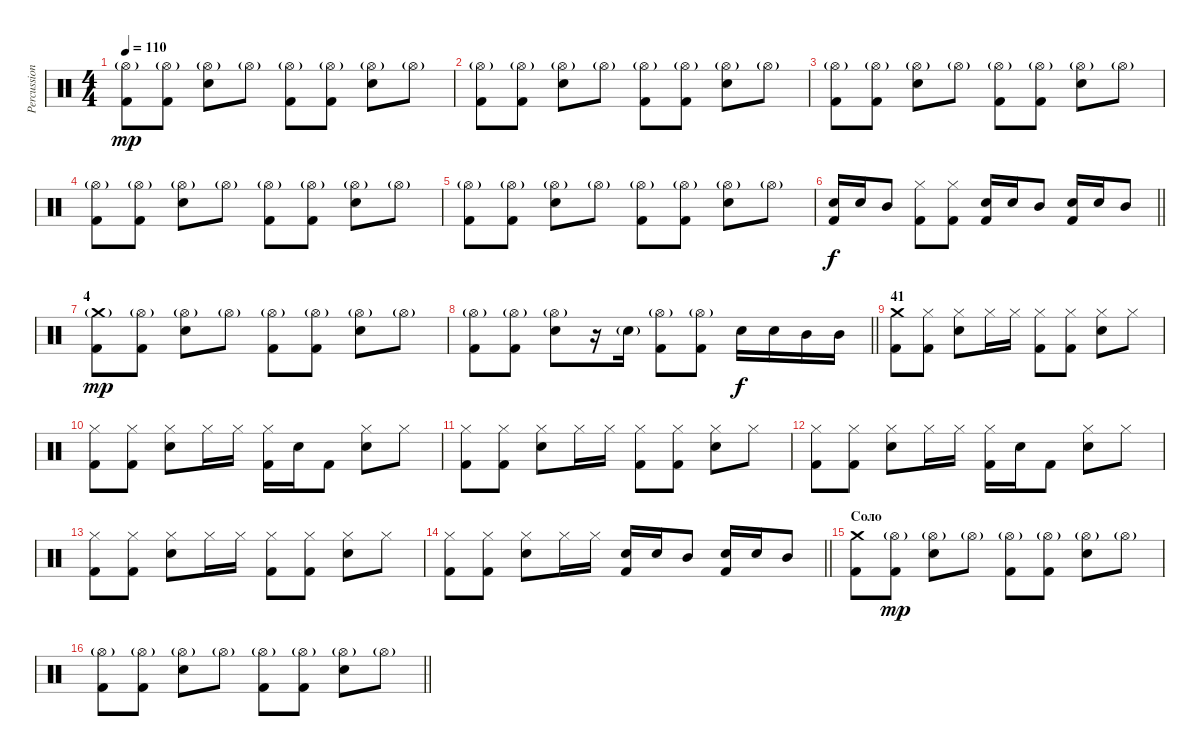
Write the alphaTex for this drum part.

\track ("Percussion" "Percussion") {instrument percussion}
\staff {score}
\articulation defaults
\ts (4 4)
\tempo 110
\clef neutral
\ks c
("Kick (hit) 2" "Hi-Hat (open)"{g}).8{dy mp} ("Kick (hit) 2" "Hi-Hat (open)"{g}).8 ("Electric Snare (hit)" "Hi-Hat (open)"{g}).8 "Hi-Hat (open)"{g}.8 ("Kick (hit) 2" "Hi-Hat (open)"{g}).8 ("Kick (hit) 2" "Hi-Hat (open)"{g}).8 ("Electric Snare (hit)" "Hi-Hat (open)"{g}).8 "Hi-Hat (open)"{g}.8 |
("Kick (hit) 2" "Hi-Hat (open)"{g}).8 ("Kick (hit) 2" "Hi-Hat (open)"{g}).8 ("Electric Snare (hit)" "Hi-Hat (open)"{g}).8 "Hi-Hat (open)"{g}.8 ("Kick (hit) 2" "Hi-Hat (open)"{g}).8 ("Kick (hit) 2" "Hi-Hat (open)"{g}).8 ("Electric Snare (hit)" "Hi-Hat (open)"{g}).8 "Hi-Hat (open)"{g}.8 |
("Kick (hit) 2" "Hi-Hat (open)"{g}).8 ("Kick (hit) 2" "Hi-Hat (open)"{g}).8 ("Electric Snare (hit)" "Hi-Hat (open)"{g}).8 "Hi-Hat (open)"{g}.8 ("Kick (hit) 2" "Hi-Hat (open)"{g}).8 ("Kick (hit) 2" "Hi-Hat (open)"{g}).8 ("Electric Snare (hit)" "Hi-Hat (open)"{g}).8 "Hi-Hat (open)"{g}.8 |
("Kick (hit) 2" "Hi-Hat (open)"{g}).8 ("Kick (hit) 2" "Hi-Hat (open)"{g}).8 ("Electric Snare (hit)" "Hi-Hat (open)"{g}).8 "Hi-Hat (open)"{g}.8 ("Kick (hit) 2" "Hi-Hat (open)"{g}).8 ("Kick (hit) 2" "Hi-Hat (open)"{g}).8 ("Electric Snare (hit)" "Hi-Hat (open)"{g}).8 "Hi-Hat (open)"{g}.8 |
("Kick (hit) 2" "Hi-Hat (open)"{g}).8 ("Kick (hit) 2" "Hi-Hat (open)"{g}).8 ("Electric Snare (hit)" "Hi-Hat (open)"{g}).8 "Hi-Hat (open)"{g}.8 ("Kick (hit) 2" "Hi-Hat (open)"{g}).8 ("Kick (hit) 2" "Hi-Hat (open)"{g}).8 ("Electric Snare (hit)" "Hi-Hat (open)"{g}).8 "Hi-Hat (open)"{g}.8 |
\barLineRight lightlight
("Kick (hit) 2" "Electric Snare (hit)").16{dy f} "Electric Snare (hit)".16 "Mid Tom (hit)".8 ("Kick (hit) 2" "Hi-Hat (closed)").8 ("Kick (hit) 2" "Hi-Hat (closed)").8 ("Kick (hit) 2" "Electric Snare (hit)").16 "Electric Snare (hit)".16 "Mid Tom (hit)".8 ("Kick (hit) 2" "Electric Snare (hit)").16 "Electric Snare (hit)".16 "Mid Tom (hit)".8 |
\section ("" "4")
("Kick (hit) 2" "Crash medium (hit)"{g}).8{dy mp} ("Kick (hit) 2" "Hi-Hat (open)"{g}).8 ("Electric Snare (hit)" "Hi-Hat (open)"{g}).8 "Hi-Hat (open)"{g}.8 ("Kick (hit) 2" "Hi-Hat (open)"{g}).8 ("Kick (hit) 2" "Hi-Hat (open)"{g}).8 ("Electric Snare (hit)" "Hi-Hat (open)"{g}).8 "Hi-Hat (open)"{g}.8 |
\barLineRight lightlight
("Kick (hit) 2" "Hi-Hat (open)"{g}).8 ("Kick (hit) 2" "Hi-Hat (open)"{g}).8 ("Electric Snare (hit)" "Hi-Hat (open)"{g}).8 r.16 "Electric Snare (hit)"{g}.16 ("Kick (hit) 2" "Hi-Hat (open)"{g}).8 ("Kick (hit) 2" "Hi-Hat (open)"{g}).8 "Electric Snare (hit)".16{dy f} "Electric Snare (hit)".16 "Mid Tom (hit)".16 "Mid Tom (hit)".16 |
\section ("" "41")
("Kick (hit) 2" "Crash medium (hit)").8 ("Kick (hit) 2" "Hi-Hat (closed)").8 ("Electric Snare (hit)" "Hi-Hat (closed)").8 "Hi-Hat (closed)".16 "Hi-Hat (closed)".16 ("Kick (hit) 2" "Hi-Hat (closed)").8 ("Kick (hit) 2" "Hi-Hat (closed)").8 ("Electric Snare (hit)" "Hi-Hat (closed)").8 "Hi-Hat (closed)".8 |
("Kick (hit) 2" "Hi-Hat (closed)").8 ("Kick (hit) 2" "Hi-Hat (closed)").8 ("Electric Snare (hit)" "Hi-Hat (closed)").8 "Hi-Hat (closed)".16 "Hi-Hat (closed)".16 ("Kick (hit) 2" "Hi-Hat (closed)").16 "Electric Snare (hit)".16 "Kick (hit) 2".8 ("Electric Snare (hit)" "Hi-Hat (closed)").8 "Hi-Hat (closed)".8 |
("Kick (hit) 2" "Hi-Hat (closed)").8 ("Kick (hit) 2" "Hi-Hat (closed)").8 ("Electric Snare (hit)" "Hi-Hat (closed)").8 "Hi-Hat (closed)".16 "Hi-Hat (closed)".16 ("Kick (hit) 2" "Hi-Hat (closed)").8 ("Kick (hit) 2" "Hi-Hat (closed)").8 ("Electric Snare (hit)" "Hi-Hat (closed)").8 "Hi-Hat (closed)".8 |
("Kick (hit) 2" "Hi-Hat (closed)").8 ("Kick (hit) 2" "Hi-Hat (closed)").8 ("Electric Snare (hit)" "Hi-Hat (closed)").8 "Hi-Hat (closed)".16 "Hi-Hat (closed)".16 ("Kick (hit) 2" "Hi-Hat (closed)").16 "Electric Snare (hit)".16 "Kick (hit) 2".8 ("Electric Snare (hit)" "Hi-Hat (closed)").8 "Hi-Hat (closed)".8 |
("Kick (hit) 2" "Hi-Hat (closed)").8 ("Kick (hit) 2" "Hi-Hat (closed)").8 ("Electric Snare (hit)" "Hi-Hat (closed)").8 "Hi-Hat (closed)".16 "Hi-Hat (closed)".16 ("Kick (hit) 2" "Hi-Hat (closed)").8 ("Kick (hit) 2" "Hi-Hat (closed)").8 ("Electric Snare (hit)" "Hi-Hat (closed)").8 "Hi-Hat (closed)".8 |
\barLineRight lightlight
("Kick (hit) 2" "Hi-Hat (closed)").8 ("Kick (hit) 2" "Hi-Hat (closed)").8 ("Electric Snare (hit)" "Hi-Hat (closed)").8 "Hi-Hat (closed)".16 "Hi-Hat (closed)".16 ("Kick (hit) 2" "Electric Snare (hit)").16 "Electric Snare (hit)".16 "Mid Tom (hit)".8 ("Electric Snare (hit)" "Kick (hit) 2").16 "Electric Snare (hit)".16 "Mid Tom (hit)".8 |
\section ("" "Соло")
("Kick (hit) 2" "Crash medium (hit)").8 ("Kick (hit) 2" "Hi-Hat (open)"{g}).8{dy mp} ("Electric Snare (hit)" "Hi-Hat (open)"{g}).8 "Hi-Hat (open)"{g}.8 ("Kick (hit) 2" "Hi-Hat (open)"{g}).8 ("Kick (hit) 2" "Hi-Hat (open)"{g}).8 ("Electric Snare (hit)" "Hi-Hat (open)"{g}).8 "Hi-Hat (open)"{g}.8 |
\barLineRight lightlight
("Kick (hit) 2" "Hi-Hat (open)"{g}).8 ("Kick (hit) 2" "Hi-Hat (open)"{g}).8 ("Electric Snare (hit)" "Hi-Hat (open)"{g}).8 "Hi-Hat (open)"{g}.8 ("Kick (hit) 2" "Hi-Hat (open)"{g}).8 ("Kick (hit) 2" "Hi-Hat (open)"{g}).8 ("Electric Snare (hit)" "Hi-Hat (open)"{g}).8 "Hi-Hat (open)"{g}.8
